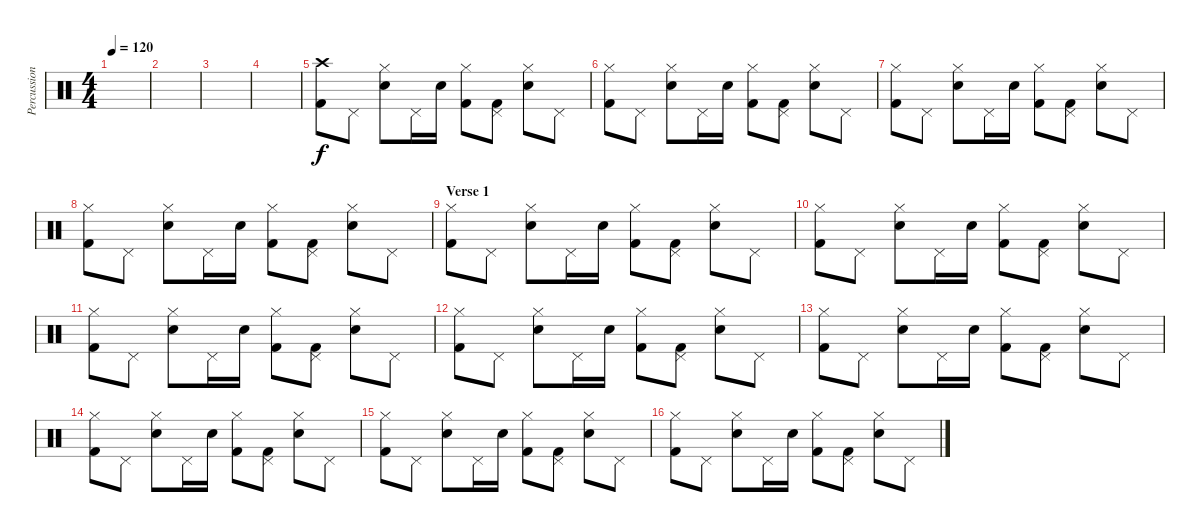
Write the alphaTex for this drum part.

\track ("Percussion" "Percussion") {instrument percussion}
\staff {score}
\articulation defaults
\ts (4 4)
\tempo 120
\clef neutral
\ks c
|
|
|
|
("Kick (hit) 2" "Crash high (hit)").8 "Pedal Hi-Hat (hit)".8 ("Electric Snare (hit)" "Hi-Hat (closed)").8 "Pedal Hi-Hat (hit)".16 "Electric Snare (hit)".16 ("Kick (hit) 2" "Hi-Hat (closed)").8 ("Kick (hit) 2" "Pedal Hi-Hat (hit)").8 ("Electric Snare (hit)" "Hi-Hat (closed)").8 "Pedal Hi-Hat (hit)".8 |
("Kick (hit) 2" "Hi-Hat (closed)").8 "Pedal Hi-Hat (hit)".8 ("Electric Snare (hit)" "Hi-Hat (closed)").8 "Pedal Hi-Hat (hit)".16 "Electric Snare (hit)".16 ("Kick (hit) 2" "Hi-Hat (closed)").8 ("Kick (hit) 2" "Pedal Hi-Hat (hit)").8 ("Electric Snare (hit)" "Hi-Hat (closed)").8 "Pedal Hi-Hat (hit)".8 |
("Kick (hit) 2" "Hi-Hat (closed)").8 "Pedal Hi-Hat (hit)".8 ("Electric Snare (hit)" "Hi-Hat (closed)").8 "Pedal Hi-Hat (hit)".16 "Electric Snare (hit)".16 ("Kick (hit) 2" "Hi-Hat (closed)").8 ("Kick (hit) 2" "Pedal Hi-Hat (hit)").8 ("Electric Snare (hit)" "Hi-Hat (closed)").8 "Pedal Hi-Hat (hit)".8 |
("Kick (hit) 2" "Hi-Hat (closed)").8 "Pedal Hi-Hat (hit)".8 ("Electric Snare (hit)" "Hi-Hat (closed)").8 "Pedal Hi-Hat (hit)".16 "Electric Snare (hit)".16 ("Kick (hit) 2" "Hi-Hat (closed)").8 ("Kick (hit) 2" "Pedal Hi-Hat (hit)").8 ("Electric Snare (hit)" "Hi-Hat (closed)").8 "Pedal Hi-Hat (hit)".8 |
\section ("" "Verse 1")
("Kick (hit) 2" "Hi-Hat (closed)").8 "Pedal Hi-Hat (hit)".8 ("Electric Snare (hit)" "Hi-Hat (closed)").8 "Pedal Hi-Hat (hit)".16 "Electric Snare (hit)".16 ("Kick (hit) 2" "Hi-Hat (closed)").8 ("Kick (hit) 2" "Pedal Hi-Hat (hit)").8 ("Electric Snare (hit)" "Hi-Hat (closed)").8 "Pedal Hi-Hat (hit)".8 |
("Kick (hit) 2" "Hi-Hat (closed)").8 "Pedal Hi-Hat (hit)".8 ("Electric Snare (hit)" "Hi-Hat (closed)").8 "Pedal Hi-Hat (hit)".16 "Electric Snare (hit)".16 ("Kick (hit) 2" "Hi-Hat (closed)").8 ("Kick (hit) 2" "Pedal Hi-Hat (hit)").8 ("Electric Snare (hit)" "Hi-Hat (closed)").8 "Pedal Hi-Hat (hit)".8 |
("Kick (hit) 2" "Hi-Hat (closed)").8 "Pedal Hi-Hat (hit)".8 ("Electric Snare (hit)" "Hi-Hat (closed)").8 "Pedal Hi-Hat (hit)".16 "Electric Snare (hit)".16 ("Kick (hit) 2" "Hi-Hat (closed)").8 ("Kick (hit) 2" "Pedal Hi-Hat (hit)").8 ("Electric Snare (hit)" "Hi-Hat (closed)").8 "Pedal Hi-Hat (hit)".8 |
("Kick (hit) 2" "Hi-Hat (closed)").8 "Pedal Hi-Hat (hit)".8 ("Electric Snare (hit)" "Hi-Hat (closed)").8 "Pedal Hi-Hat (hit)".16 "Electric Snare (hit)".16 ("Kick (hit) 2" "Hi-Hat (closed)").8 ("Kick (hit) 2" "Pedal Hi-Hat (hit)").8 ("Electric Snare (hit)" "Hi-Hat (closed)").8 "Pedal Hi-Hat (hit)".8 |
("Kick (hit) 2" "Hi-Hat (closed)").8 "Pedal Hi-Hat (hit)".8 ("Electric Snare (hit)" "Hi-Hat (closed)").8 "Pedal Hi-Hat (hit)".16 "Electric Snare (hit)".16 ("Kick (hit) 2" "Hi-Hat (closed)").8 ("Kick (hit) 2" "Pedal Hi-Hat (hit)").8 ("Electric Snare (hit)" "Hi-Hat (closed)").8 "Pedal Hi-Hat (hit)".8 |
("Kick (hit) 2" "Hi-Hat (closed)").8 "Pedal Hi-Hat (hit)".8 ("Electric Snare (hit)" "Hi-Hat (closed)").8 "Pedal Hi-Hat (hit)".16 "Electric Snare (hit)".16 ("Kick (hit) 2" "Hi-Hat (closed)").8 ("Kick (hit) 2" "Pedal Hi-Hat (hit)").8 ("Electric Snare (hit)" "Hi-Hat (closed)").8 "Pedal Hi-Hat (hit)".8 |
("Kick (hit) 2" "Hi-Hat (closed)").8 "Pedal Hi-Hat (hit)".8 ("Electric Snare (hit)" "Hi-Hat (closed)").8 "Pedal Hi-Hat (hit)".16 "Electric Snare (hit)".16 ("Kick (hit) 2" "Hi-Hat (closed)").8 ("Kick (hit) 2" "Pedal Hi-Hat (hit)").8 ("Electric Snare (hit)" "Hi-Hat (closed)").8 "Pedal Hi-Hat (hit)".8 |
("Kick (hit) 2" "Hi-Hat (closed)").8 "Pedal Hi-Hat (hit)".8 ("Electric Snare (hit)" "Hi-Hat (closed)").8 "Pedal Hi-Hat (hit)".16 "Electric Snare (hit)".16 ("Kick (hit) 2" "Hi-Hat (closed)").8 ("Kick (hit) 2" "Pedal Hi-Hat (hit)").8 ("Electric Snare (hit)" "Hi-Hat (closed)").8 "Pedal Hi-Hat (hit)".8
